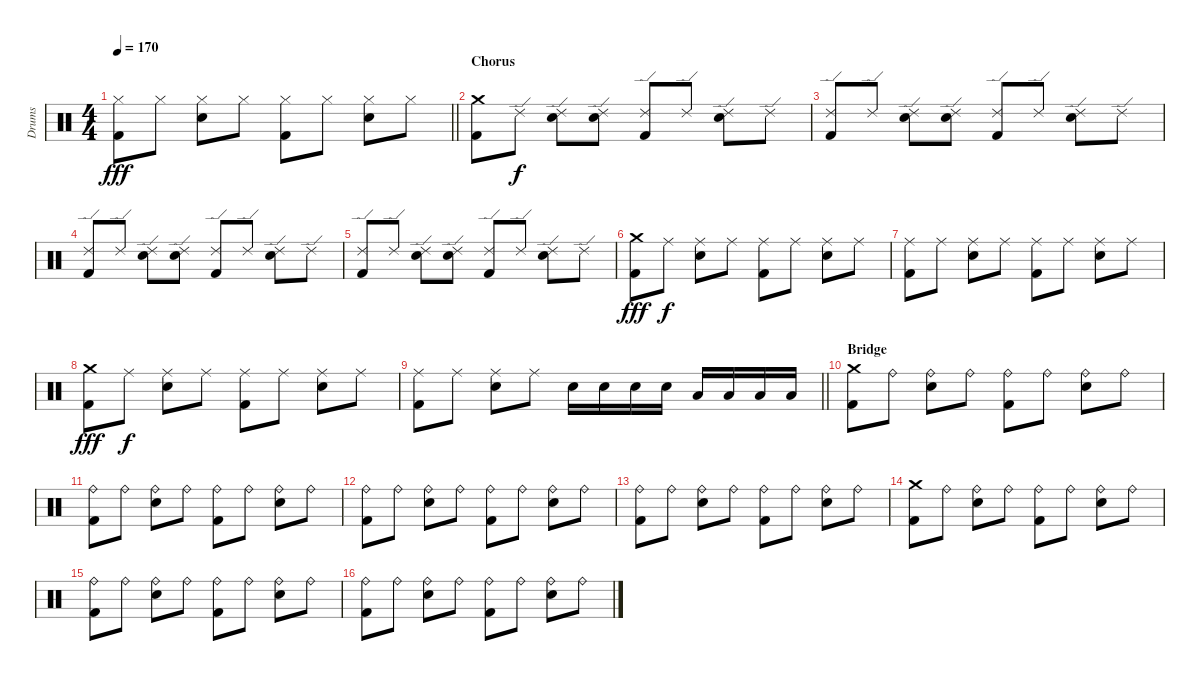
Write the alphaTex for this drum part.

\track ("Drums" "Drums") {instrument percussion}
\staff {score}
\articulation defaults
\ts (4 4)
\tempo 170
\clef neutral
\barLineRight lightlight
\ks c
("Hi-Hat (closed)" "Kick (hit) 2").8{dy fff} "Hi-Hat (closed)".8 ("Hi-Hat (closed)" "Electric Snare (hit)").8 "Hi-Hat (closed)".8 ("Hi-Hat (closed)" "Kick (hit) 2").8 "Hi-Hat (closed)".8 ("Hi-Hat (closed)" "Electric Snare (hit)").8 "Hi-Hat (closed)".8 |
\section ("" "Chorus")
("Crash medium (hit)" "Kick (hit) 2").8 "Ride (edge) 2".8{dy f} ("Ride (edge) 2" "Electric Snare (hit)").8 ("Ride (edge) 2" "Electric Snare (hit)").8 ("Ride (edge) 2" "Kick (hit) 2").8 "Ride (edge) 2".8 ("Ride (edge) 2" "Electric Snare (hit)").8 "Ride (edge) 2".8 |
("Ride (edge) 2" "Kick (hit) 2").8 "Ride (edge) 2".8 ("Ride (edge) 2" "Electric Snare (hit)").8 ("Ride (edge) 2" "Electric Snare (hit)").8 ("Ride (edge) 2" "Kick (hit) 2").8 "Ride (edge) 2".8 ("Ride (edge) 2" "Electric Snare (hit)").8 "Ride (edge) 2".8 |
("Ride (edge) 2" "Kick (hit) 2").8 "Ride (edge) 2".8 ("Ride (edge) 2" "Electric Snare (hit)").8 ("Ride (edge) 2" "Electric Snare (hit)").8 ("Ride (edge) 2" "Kick (hit) 2").8 "Ride (edge) 2".8 ("Ride (edge) 2" "Electric Snare (hit)").8 "Ride (edge) 2".8 |
("Ride (edge) 2" "Kick (hit) 2").8 "Ride (edge) 2".8 ("Ride (edge) 2" "Electric Snare (hit)").8 ("Ride (edge) 2" "Electric Snare (hit)").8 ("Ride (edge) 2" "Kick (hit) 2").8 "Ride (edge) 2".8 ("Ride (edge) 2" "Electric Snare (hit)").8 "Ride (edge) 2".8 |
("Crash medium (hit)" "Kick (hit) 2").8{dy fff} "Ride (middle)".8{dy f} ("Ride (middle)" "Electric Snare (hit)").8 "Ride (middle)".8 ("Ride (middle)" "Kick (hit) 2").8 "Ride (middle)".8 ("Ride (middle)" "Electric Snare (hit)").8 "Ride (middle)".8 |
("Ride (middle)" "Kick (hit) 2").8 "Ride (middle)".8 ("Ride (middle)" "Electric Snare (hit)").8 "Ride (middle)".8 ("Ride (middle)" "Kick (hit) 2").8 "Ride (middle)".8 ("Ride (middle)" "Electric Snare (hit)").8 "Ride (middle)".8 |
("Crash medium (hit)" "Kick (hit) 2").8{dy fff} "Ride (middle)".8{dy f} ("Ride (middle)" "Electric Snare (hit)").8 "Ride (middle)".8 ("Ride (middle)" "Kick (hit) 2").8 "Ride (middle)".8 ("Ride (middle)" "Electric Snare (hit)").8 "Ride (middle)".8 |
\barLineRight lightlight
("Ride (middle)" "Kick (hit) 2").8 "Ride (middle)".8 ("Ride (middle)" "Electric Snare (hit)").8 "Ride (middle)".8 "Electric Snare (hit)".16 "Electric Snare (hit)".16 "Electric Snare (hit)".16 "Electric Snare (hit)".16 "Low Tom (hit)".16 "Low Tom (hit)".16 "Low Tom (hit)".16 "Low Tom (hit)".16 |
\section ("" "Bridge")
("Crash medium (hit)" "Kick (hit) 2").8 "Ride (bell)".8 ("Ride (bell)" "Electric Snare (hit)").8 "Ride (bell)".8 ("Ride (bell)" "Kick (hit) 2").8 "Ride (bell)".8 ("Ride (bell)" "Electric Snare (hit)").8 "Ride (bell)".8 |
("Ride (bell)" "Kick (hit) 2").8 "Ride (bell)".8 ("Ride (bell)" "Electric Snare (hit)").8 "Ride (bell)".8 ("Ride (bell)" "Kick (hit) 2").8 "Ride (bell)".8 ("Ride (bell)" "Electric Snare (hit)").8 "Ride (bell)".8 |
("Ride (bell)" "Kick (hit) 2").8 "Ride (bell)".8 ("Ride (bell)" "Electric Snare (hit)").8 "Ride (bell)".8 ("Ride (bell)" "Kick (hit) 2").8 "Ride (bell)".8 ("Ride (bell)" "Electric Snare (hit)").8 "Ride (bell)".8 |
("Ride (bell)" "Kick (hit) 2").8 "Ride (bell)".8 ("Ride (bell)" "Electric Snare (hit)").8 "Ride (bell)".8 ("Ride (bell)" "Kick (hit) 2").8 "Ride (bell)".8 ("Ride (bell)" "Electric Snare (hit)").8 "Ride (bell)".8 |
("Crash medium (hit)" "Kick (hit) 2").8 "Ride (bell)".8 ("Ride (bell)" "Electric Snare (hit)").8 "Ride (bell)".8 ("Ride (bell)" "Kick (hit) 2").8 "Ride (bell)".8 ("Ride (bell)" "Electric Snare (hit)").8 "Ride (bell)".8 |
("Ride (bell)" "Kick (hit) 2").8 "Ride (bell)".8 ("Ride (bell)" "Electric Snare (hit)").8 "Ride (bell)".8 ("Ride (bell)" "Kick (hit) 2").8 "Ride (bell)".8 ("Ride (bell)" "Electric Snare (hit)").8 "Ride (bell)".8 |
("Ride (bell)" "Kick (hit) 2").8 "Ride (bell)".8 ("Ride (bell)" "Electric Snare (hit)").8 "Ride (bell)".8 ("Ride (bell)" "Kick (hit) 2").8 "Ride (bell)".8 ("Ride (bell)" "Electric Snare (hit)").8 "Ride (bell)".8
